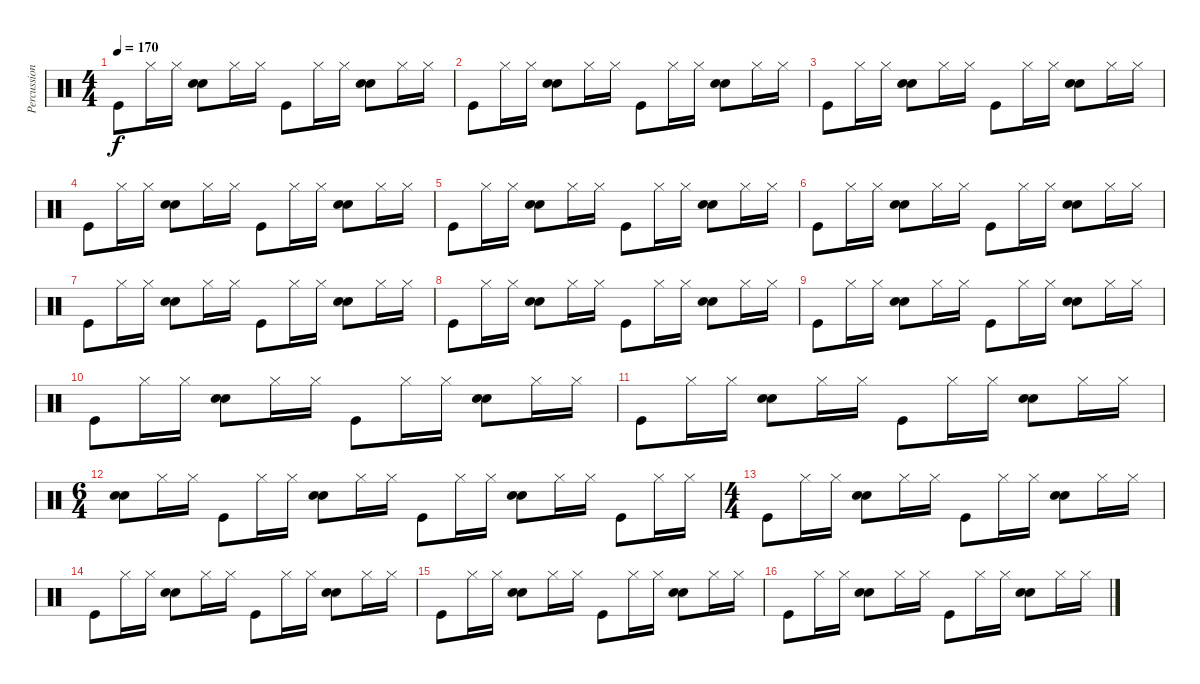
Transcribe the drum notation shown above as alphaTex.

\track ("Percussioni" "Percussion") {instrument percussion}
\staff {score}
\articulation defaults
\ts (4 4)
\tempo 170
\clef neutral
\ks c "Kick (hit)".8{dy f} "Hi-Hat (closed)".16 "Hi-Hat (closed)".16
("Snare (hit) 2" "Electric Snare (hit)").8 "Hi-Hat (closed)".16 "Hi-Hat (closed)".16 "Kick (hit)".8 "Hi-Hat (closed)".16 "Hi-Hat (closed)".16 ("Snare (hit) 2" "Electric Snare (hit)").8 "Hi-Hat (closed)".16 "Hi-Hat (closed)".16 |
"Kick (hit)".8 "Hi-Hat (closed)".16 "Hi-Hat (closed)".16 ("Snare (hit) 2" "Electric Snare (hit)").8 "Hi-Hat (closed)".16 "Hi-Hat (closed)".16 "Kick (hit)".8 "Hi-Hat (closed)".16 "Hi-Hat (closed)".16 ("Snare (hit) 2" "Electric Snare (hit)").8 "Hi-Hat (closed)".16 "Hi-Hat (closed)".16 |
"Kick (hit)".8 "Hi-Hat (closed)".16 "Hi-Hat (closed)".16 ("Snare (hit) 2" "Electric Snare (hit)").8 "Hi-Hat (closed)".16 "Hi-Hat (closed)".16 "Kick (hit)".8 "Hi-Hat (closed)".16 "Hi-Hat (closed)".16 ("Snare (hit) 2" "Electric Snare (hit)").8 "Hi-Hat (closed)".16 "Hi-Hat (closed)".16 |
"Kick (hit)".8 "Hi-Hat (closed)".16 "Hi-Hat (closed)".16 ("Snare (hit) 2" "Electric Snare (hit)").8 "Hi-Hat (closed)".16 "Hi-Hat (closed)".16 "Kick (hit)".8 "Hi-Hat (closed)".16 "Hi-Hat (closed)".16 ("Snare (hit) 2" "Electric Snare (hit)").8 "Hi-Hat (closed)".16 "Hi-Hat (closed)".16 |
"Kick (hit)".8 "Hi-Hat (closed)".16 "Hi-Hat (closed)".16 ("Snare (hit) 2" "Electric Snare (hit)").8 "Hi-Hat (closed)".16 "Hi-Hat (closed)".16 "Kick (hit)".8 "Hi-Hat (closed)".16 "Hi-Hat (closed)".16 ("Snare (hit) 2" "Electric Snare (hit)").8 "Hi-Hat (closed)".16 "Hi-Hat (closed)".16 |
"Kick (hit)".8 "Hi-Hat (closed)".16 "Hi-Hat (closed)".16 ("Snare (hit) 2" "Electric Snare (hit)").8 "Hi-Hat (closed)".16 "Hi-Hat (closed)".16 "Kick (hit)".8 "Hi-Hat (closed)".16 "Hi-Hat (closed)".16 ("Snare (hit) 2" "Electric Snare (hit)").8 "Hi-Hat (closed)".16 "Hi-Hat (closed)".16 |
"Kick (hit)".8 "Hi-Hat (closed)".16 "Hi-Hat (closed)".16 ("Snare (hit) 2" "Electric Snare (hit)").8 "Hi-Hat (closed)".16 "Hi-Hat (closed)".16 "Kick (hit)".8 "Hi-Hat (closed)".16 "Hi-Hat (closed)".16 ("Snare (hit) 2" "Electric Snare (hit)").8 "Hi-Hat (closed)".16 "Hi-Hat (closed)".16 |
"Kick (hit)".8 "Hi-Hat (closed)".16 "Hi-Hat (closed)".16 ("Snare (hit) 2" "Electric Snare (hit)").8 "Hi-Hat (closed)".16 "Hi-Hat (closed)".16 "Kick (hit)".8 "Hi-Hat (closed)".16 "Hi-Hat (closed)".16 ("Snare (hit) 2" "Electric Snare (hit)").8 "Hi-Hat (closed)".16 "Hi-Hat (closed)".16 |
"Kick (hit)".8 "Hi-Hat (closed)".16 "Hi-Hat (closed)".16 ("Snare (hit) 2" "Electric Snare (hit)").8 "Hi-Hat (closed)".16 "Hi-Hat (closed)".16 "Kick (hit)".8 "Hi-Hat (closed)".16 "Hi-Hat (closed)".16 ("Snare (hit) 2" "Electric Snare (hit)").8 "Hi-Hat (closed)".16 "Hi-Hat (closed)".16 |
"Kick (hit)".8 "Hi-Hat (closed)".16 "Hi-Hat (closed)".16 ("Snare (hit) 2" "Electric Snare (hit)").8 "Hi-Hat (closed)".16 "Hi-Hat (closed)".16 "Kick (hit)".8 "Hi-Hat (closed)".16 "Hi-Hat (closed)".16 ("Snare (hit) 2" "Electric Snare (hit)").8 "Hi-Hat (closed)".16 "Hi-Hat (closed)".16 |
"Kick (hit)".8 "Hi-Hat (closed)".16 "Hi-Hat (closed)".16 ("Snare (hit) 2" "Electric Snare (hit)").8 "Hi-Hat (closed)".16 "Hi-Hat (closed)".16 "Kick (hit)".8 "Hi-Hat (closed)".16 "Hi-Hat (closed)".16 ("Snare (hit) 2" "Electric Snare (hit)").8 "Hi-Hat (closed)".16 "Hi-Hat (closed)".16 |
\ts (6 4)
("Electric Snare (hit)" "Snare (hit) 2").8 "Hi-Hat (closed)".16 "Hi-Hat (closed)".16 "Kick (hit)".8 "Hi-Hat (closed)".16 "Hi-Hat (closed)".16 ("Electric Snare (hit)" "Snare (hit) 2").8 "Hi-Hat (closed)".16 "Hi-Hat (closed)".16 "Kick (hit)".8 "Hi-Hat (closed)".16 "Hi-Hat (closed)".16 ("Electric Snare (hit)" "Snare (hit) 2").8 "Hi-Hat (closed)".16 "Hi-Hat (closed)".16 "Kick (hit)".8 "Hi-Hat (closed)".16 "Hi-Hat (closed)".16 |
\ts (4 4)
"Kick (hit)".8 "Hi-Hat (closed)".16 "Hi-Hat (closed)".16 ("Snare (hit) 2" "Electric Snare (hit)").8 "Hi-Hat (closed)".16 "Hi-Hat (closed)".16 "Kick (hit)".8 "Hi-Hat (closed)".16 "Hi-Hat (closed)".16 ("Snare (hit) 2" "Electric Snare (hit)").8 "Hi-Hat (closed)".16 "Hi-Hat (closed)".16 |
"Kick (hit)".8 "Hi-Hat (closed)".16 "Hi-Hat (closed)".16 ("Snare (hit) 2" "Electric Snare (hit)").8 "Hi-Hat (closed)".16 "Hi-Hat (closed)".16 "Kick (hit)".8 "Hi-Hat (closed)".16 "Hi-Hat (closed)".16 ("Snare (hit) 2" "Electric Snare (hit)").8 "Hi-Hat (closed)".16 "Hi-Hat (closed)".16 |
"Kick (hit)".8 "Hi-Hat (closed)".16 "Hi-Hat (closed)".16 ("Snare (hit) 2" "Electric Snare (hit)").8 "Hi-Hat (closed)".16 "Hi-Hat (closed)".16 "Kick (hit)".8 "Hi-Hat (closed)".16 "Hi-Hat (closed)".16 ("Snare (hit) 2" "Electric Snare (hit)").8 "Hi-Hat (closed)".16 "Hi-Hat (closed)".16 |
"Kick (hit)".8 "Hi-Hat (closed)".16 "Hi-Hat (closed)".16 ("Snare (hit) 2" "Electric Snare (hit)").8 "Hi-Hat (closed)".16 "Hi-Hat (closed)".16 "Kick (hit)".8 "Hi-Hat (closed)".16 "Hi-Hat (closed)".16 ("Snare (hit) 2" "Electric Snare (hit)").8 "Hi-Hat (closed)".16 "Hi-Hat (closed)".16
